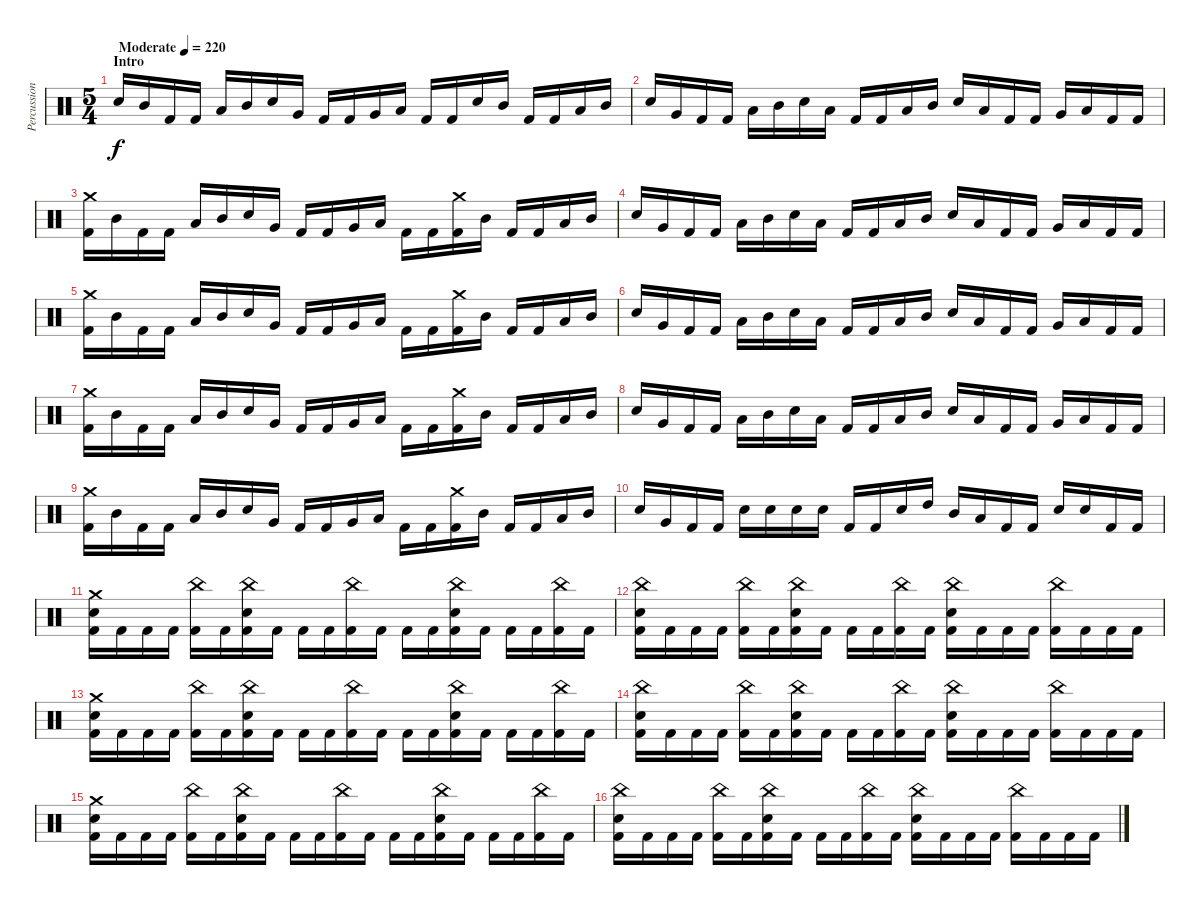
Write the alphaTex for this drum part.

\track ("Percussion" "Percussion") {instrument percussion}
\staff {score}
\articulation defaults
\ts (5 4)
\section ("" "Intro")
\tempo (220 "Moderate")
\clef neutral
\ks c "Electric Snare (hit)".16{dy f} "Mid Tom (hit)".16 "Kick (hit) 2".16 "Kick (hit) 2".16 "Low Tom (hit)".16 "Mid Tom (hit)".16 "Electric Snare (hit)".16 "Very Low Tom (hit)".16 "Kick (hit) 2".16 "Kick (hit) 2".16 "Very Low Tom (hit)".16 "Low Floor Tom (hit)".16 "Kick (hit) 2".16 "Kick (hit) 2".16 "Electric Snare (hit)".16 "Mid Tom (hit)".16 "Kick (hit) 2".16 "Kick (hit) 2".16 "Low Tom (hit)".16 "Mid Tom (hit)".16
|
"Electric Snare (hit)".16 "Very Low Tom (hit)".16 "Kick (hit) 2".16 "Kick (hit) 2".16 "Low Tom (hit)".16 "Mid Tom (hit)".16 "Electric Snare (hit)".16 "Low Tom (hit)".16 "Kick (hit) 2".16 "Kick (hit) 2".16 "Low Tom (hit)".16 "Mid Tom (hit)".16 "Electric Snare (hit)".16 "Low Tom (hit)".16 "Kick (hit) 2".16 "Kick (hit) 2".16 "Very Low Tom (hit)".16 "Low Floor Tom (hit)".16 "Kick (hit) 2".16 "Kick (hit) 2".16 |
("Crash medium (hit)" "Kick (hit) 2").16 "Mid Tom (hit)".16 "Kick (hit) 2".16 "Kick (hit) 2".16 "Low Tom (hit)".16 "Mid Tom (hit)".16 "Electric Snare (hit)".16 "Very Low Tom (hit)".16 "Kick (hit) 2".16 "Kick (hit) 2".16 "Very Low Tom (hit)".16 "Low Floor Tom (hit)".16 "Kick (hit) 2".16 "Kick (hit) 2".16 ("Crash medium (hit)" "Kick (hit) 2").16 "Mid Tom (hit)".16 "Kick (hit) 2".16 "Kick (hit) 2".16 "Low Tom (hit)".16 "Mid Tom (hit)".16 |
"Electric Snare (hit)".16 "Very Low Tom (hit)".16 "Kick (hit) 2".16 "Kick (hit) 2".16 "Low Tom (hit)".16 "Mid Tom (hit)".16 "Electric Snare (hit)".16 "Low Tom (hit)".16 "Kick (hit) 2".16 "Kick (hit) 2".16 "Low Tom (hit)".16 "Mid Tom (hit)".16 "Electric Snare (hit)".16 "Low Tom (hit)".16 "Kick (hit) 2".16 "Kick (hit) 2".16 "Very Low Tom (hit)".16 "Low Floor Tom (hit)".16 "Kick (hit) 2".16 "Kick (hit) 2".16 |
("Crash medium (hit)" "Kick (hit) 2").16 "Mid Tom (hit)".16 "Kick (hit) 2".16 "Kick (hit) 2".16 "Low Tom (hit)".16 "Mid Tom (hit)".16 "Electric Snare (hit)".16 "Very Low Tom (hit)".16 "Kick (hit) 2".16 "Kick (hit) 2".16 "Very Low Tom (hit)".16 "Low Floor Tom (hit)".16 "Kick (hit) 2".16 "Kick (hit) 2".16 ("Crash medium (hit)" "Kick (hit) 2").16 "Mid Tom (hit)".16 "Kick (hit) 2".16 "Kick (hit) 2".16 "Low Tom (hit)".16 "Mid Tom (hit)".16 |
"Electric Snare (hit)".16 "Very Low Tom (hit)".16 "Kick (hit) 2".16 "Kick (hit) 2".16 "Low Tom (hit)".16 "Mid Tom (hit)".16 "Electric Snare (hit)".16 "Low Tom (hit)".16 "Kick (hit) 2".16 "Kick (hit) 2".16 "Low Tom (hit)".16 "Mid Tom (hit)".16 "Electric Snare (hit)".16 "Low Tom (hit)".16 "Kick (hit) 2".16 "Kick (hit) 2".16 "Very Low Tom (hit)".16 "Low Floor Tom (hit)".16 "Kick (hit) 2".16 "Kick (hit) 2".16 |
("Crash medium (hit)" "Kick (hit) 2").16 "Mid Tom (hit)".16 "Kick (hit) 2".16 "Kick (hit) 2".16 "Low Tom (hit)".16 "Mid Tom (hit)".16 "Electric Snare (hit)".16 "Very Low Tom (hit)".16 "Kick (hit) 2".16 "Kick (hit) 2".16 "Very Low Tom (hit)".16 "Low Floor Tom (hit)".16 "Kick (hit) 2".16 "Kick (hit) 2".16 ("Crash medium (hit)" "Kick (hit) 2").16 "Mid Tom (hit)".16 "Kick (hit) 2".16 "Kick (hit) 2".16 "Low Tom (hit)".16 "Mid Tom (hit)".16 |
"Electric Snare (hit)".16 "Very Low Tom (hit)".16 "Kick (hit) 2".16 "Kick (hit) 2".16 "Low Tom (hit)".16 "Mid Tom (hit)".16 "Electric Snare (hit)".16 "Low Tom (hit)".16 "Kick (hit) 2".16 "Kick (hit) 2".16 "Low Tom (hit)".16 "Mid Tom (hit)".16 "Electric Snare (hit)".16 "Low Tom (hit)".16 "Kick (hit) 2".16 "Kick (hit) 2".16 "Very Low Tom (hit)".16 "Low Floor Tom (hit)".16 "Kick (hit) 2".16 "Kick (hit) 2".16 |
("Crash medium (hit)" "Kick (hit) 2").16 "Mid Tom (hit)".16 "Kick (hit) 2".16 "Kick (hit) 2".16 "Low Tom (hit)".16 "Mid Tom (hit)".16 "Electric Snare (hit)".16 "Very Low Tom (hit)".16 "Kick (hit) 2".16 "Kick (hit) 2".16 "Very Low Tom (hit)".16 "Low Floor Tom (hit)".16 "Kick (hit) 2".16 "Kick (hit) 2".16 ("Crash medium (hit)" "Kick (hit) 2").16 "Mid Tom (hit)".16 "Kick (hit) 2".16 "Kick (hit) 2".16 "Low Tom (hit)".16 "Mid Tom (hit)".16 |
"Electric Snare (hit)".16 "Very Low Tom (hit)".16 "Kick (hit) 2".16 "Kick (hit) 2".16 "Electric Snare (hit)".16 "Electric Snare (hit)".16 "Electric Snare (hit)".16 "Electric Snare (hit)".16 "Kick (hit) 2".16 "Kick (hit) 2".16 "Electric Snare (hit)".16 "High Tom (hit)".16 "Mid Tom (hit)".16 "Low Tom (hit)".16 "Kick (hit) 2".16 "Kick (hit) 2".16 "Electric Snare (hit)".16 "Electric Snare (hit)".16 "Kick (hit) 2".16 "Kick (hit) 2".16 |
("Crash medium (hit)" "Electric Snare (hit)" "Kick (hit) 2").16 "Kick (hit) 2".16 "Kick (hit) 2".16 "Kick (hit) 2".16 ("China (hit)" "Kick (hit) 2").16 "Kick (hit) 2".16 ("China (hit)" "Electric Snare (hit)" "Kick (hit) 2").16 "Kick (hit) 2".16 "Kick (hit) 2".16 "Kick (hit) 2".16 ("China (hit)" "Kick (hit) 2").16 "Kick (hit) 2".16 "Kick (hit) 2".16 "Kick (hit) 2".16 ("China (hit)" "Electric Snare (hit)" "Kick (hit) 2").16 "Kick (hit) 2".16 "Kick (hit) 2".16 "Kick (hit) 2".16 ("China (hit)" "Kick (hit) 2").16 "Kick (hit) 2".16 |
("China (hit)" "Electric Snare (hit)" "Kick (hit) 2").16 "Kick (hit) 2".16 "Kick (hit) 2".16 "Kick (hit) 2".16 ("China (hit)" "Kick (hit) 2").16 "Kick (hit) 2".16 ("China (hit)" "Electric Snare (hit)" "Kick (hit) 2").16 "Kick (hit) 2".16 "Kick (hit) 2".16 "Kick (hit) 2".16 ("China (hit)" "Kick (hit) 2").16 "Kick (hit) 2".16 ("China (hit)" "Electric Snare (hit)" "Kick (hit) 2").16 "Kick (hit) 2".16 "Kick (hit) 2".16 "Kick (hit) 2".16 ("China (hit)" "Kick (hit) 2").16 "Kick (hit) 2".16 "Kick (hit) 2".16 "Kick (hit) 2".16 |
("Crash medium (hit)" "Electric Snare (hit)" "Kick (hit) 2").16 "Kick (hit) 2".16 "Kick (hit) 2".16 "Kick (hit) 2".16 ("China (hit)" "Kick (hit) 2").16 "Kick (hit) 2".16 ("China (hit)" "Electric Snare (hit)" "Kick (hit) 2").16 "Kick (hit) 2".16 "Kick (hit) 2".16 "Kick (hit) 2".16 ("China (hit)" "Kick (hit) 2").16 "Kick (hit) 2".16 "Kick (hit) 2".16 "Kick (hit) 2".16 ("China (hit)" "Electric Snare (hit)" "Kick (hit) 2").16 "Kick (hit) 2".16 "Kick (hit) 2".16 "Kick (hit) 2".16 ("China (hit)" "Kick (hit) 2").16 "Kick (hit) 2".16 |
("China (hit)" "Electric Snare (hit)" "Kick (hit) 2").16 "Kick (hit) 2".16 "Kick (hit) 2".16 "Kick (hit) 2".16 ("China (hit)" "Kick (hit) 2").16 "Kick (hit) 2".16 ("China (hit)" "Electric Snare (hit)" "Kick (hit) 2").16 "Kick (hit) 2".16 "Kick (hit) 2".16 "Kick (hit) 2".16 ("China (hit)" "Kick (hit) 2").16 "Kick (hit) 2".16 ("China (hit)" "Electric Snare (hit)" "Kick (hit) 2").16 "Kick (hit) 2".16 "Kick (hit) 2".16 "Kick (hit) 2".16 ("China (hit)" "Kick (hit) 2").16 "Kick (hit) 2".16 "Kick (hit) 2".16 "Kick (hit) 2".16 |
("Crash medium (hit)" "Electric Snare (hit)" "Kick (hit) 2").16 "Kick (hit) 2".16 "Kick (hit) 2".16 "Kick (hit) 2".16 ("China (hit)" "Kick (hit) 2").16 "Kick (hit) 2".16 ("China (hit)" "Electric Snare (hit)" "Kick (hit) 2").16 "Kick (hit) 2".16 "Kick (hit) 2".16 "Kick (hit) 2".16 ("China (hit)" "Kick (hit) 2").16 "Kick (hit) 2".16 "Kick (hit) 2".16 "Kick (hit) 2".16 ("China (hit)" "Electric Snare (hit)" "Kick (hit) 2").16 "Kick (hit) 2".16 "Kick (hit) 2".16 "Kick (hit) 2".16 ("China (hit)" "Kick (hit) 2").16 "Kick (hit) 2".16 |
("China (hit)" "Electric Snare (hit)" "Kick (hit) 2").16 "Kick (hit) 2".16 "Kick (hit) 2".16 "Kick (hit) 2".16 ("China (hit)" "Kick (hit) 2").16 "Kick (hit) 2".16 ("China (hit)" "Electric Snare (hit)" "Kick (hit) 2").16 "Kick (hit) 2".16 "Kick (hit) 2".16 "Kick (hit) 2".16 ("China (hit)" "Kick (hit) 2").16 "Kick (hit) 2".16 ("China (hit)" "Electric Snare (hit)" "Kick (hit) 2").16 "Kick (hit) 2".16 "Kick (hit) 2".16 "Kick (hit) 2".16 ("China (hit)" "Kick (hit) 2").16 "Kick (hit) 2".16 "Kick (hit) 2".16 "Kick (hit) 2".16
